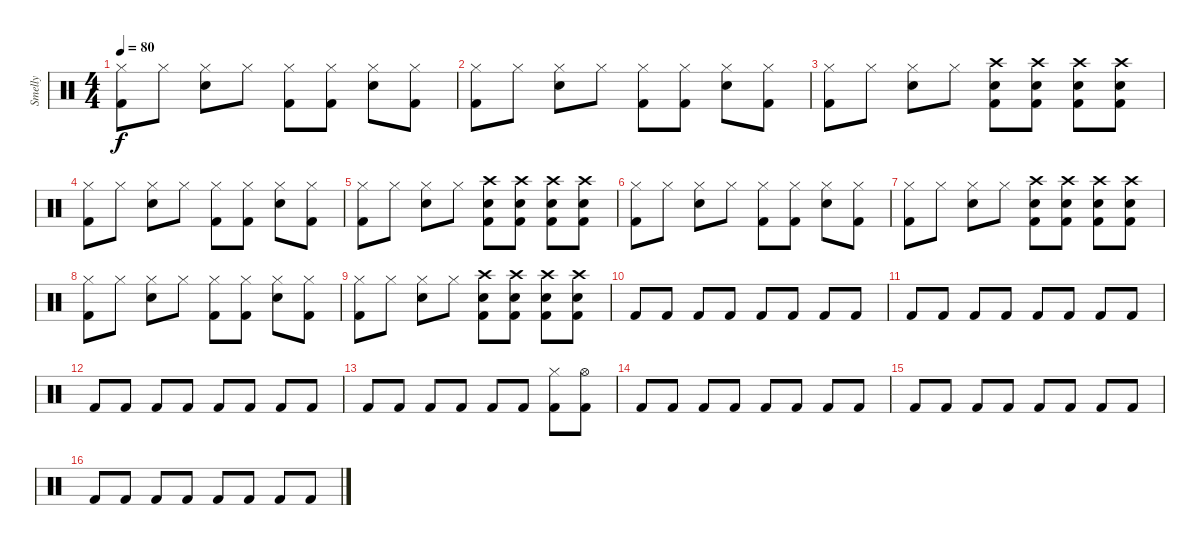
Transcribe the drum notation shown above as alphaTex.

\track ("Smelly" "Smelly") {instrument percussion}
\staff {score}
\articulation defaults
\ts (4 4)
\tempo 80
\clef neutral
\ks c
("Hi-Hat (closed)" "Kick (hit) 2").8{dy f} "Hi-Hat (closed)".8 ("Hi-Hat (closed)" "Electric Snare (hit)").8 "Hi-Hat (closed)".8 ("Hi-Hat (closed)" "Kick (hit) 2").8 ("Hi-Hat (closed)" "Kick (hit) 2").8 ("Hi-Hat (closed)" "Electric Snare (hit)").8 ("Hi-Hat (closed)" "Kick (hit) 2").8 |
("Hi-Hat (closed)" "Kick (hit) 2").8 "Hi-Hat (closed)".8 ("Hi-Hat (closed)" "Electric Snare (hit)").8 "Hi-Hat (closed)".8 ("Hi-Hat (closed)" "Kick (hit) 2").8 ("Hi-Hat (closed)" "Kick (hit) 2").8 ("Hi-Hat (closed)" "Electric Snare (hit)").8 ("Hi-Hat (closed)" "Kick (hit) 2").8 |
("Hi-Hat (closed)" "Kick (hit) 2").8 "Hi-Hat (closed)".8 ("Hi-Hat (closed)" "Electric Snare (hit)").8 "Hi-Hat (closed)".8 ("Crash high (hit)" "Electric Snare (hit)" "Kick (hit) 2").8 ("Crash high (hit)" "Electric Snare (hit)" "Kick (hit) 2").8 ("Crash high (hit)" "Electric Snare (hit)" "Kick (hit) 2").8 ("Crash high (hit)" "Electric Snare (hit)" "Kick (hit) 2").8 |
("Hi-Hat (closed)" "Kick (hit) 2").8 "Hi-Hat (closed)".8 ("Hi-Hat (closed)" "Electric Snare (hit)").8 "Hi-Hat (closed)".8 ("Hi-Hat (closed)" "Kick (hit) 2").8 ("Hi-Hat (closed)" "Kick (hit) 2").8 ("Hi-Hat (closed)" "Electric Snare (hit)").8 ("Hi-Hat (closed)" "Kick (hit) 2").8 |
("Hi-Hat (closed)" "Kick (hit) 2").8 "Hi-Hat (closed)".8 ("Hi-Hat (closed)" "Electric Snare (hit)").8 "Hi-Hat (closed)".8 ("Crash high (hit)" "Electric Snare (hit)" "Kick (hit) 2").8 ("Crash high (hit)" "Electric Snare (hit)" "Kick (hit) 2").8 ("Crash high (hit)" "Electric Snare (hit)" "Kick (hit) 2").8 ("Crash high (hit)" "Electric Snare (hit)" "Kick (hit) 2").8 |
("Hi-Hat (closed)" "Kick (hit) 2").8 "Hi-Hat (closed)".8 ("Hi-Hat (closed)" "Electric Snare (hit)").8 "Hi-Hat (closed)".8 ("Hi-Hat (closed)" "Kick (hit) 2").8 ("Hi-Hat (closed)" "Kick (hit) 2").8 ("Hi-Hat (closed)" "Electric Snare (hit)").8 ("Hi-Hat (closed)" "Kick (hit) 2").8 |
("Hi-Hat (closed)" "Kick (hit) 2").8 "Hi-Hat (closed)".8 ("Hi-Hat (closed)" "Electric Snare (hit)").8 "Hi-Hat (closed)".8 ("Crash high (hit)" "Electric Snare (hit)" "Kick (hit) 2").8 ("Crash high (hit)" "Electric Snare (hit)" "Kick (hit) 2").8 ("Crash high (hit)" "Electric Snare (hit)" "Kick (hit) 2").8 ("Crash high (hit)" "Electric Snare (hit)" "Kick (hit) 2").8 |
("Hi-Hat (closed)" "Kick (hit) 2").8 "Hi-Hat (closed)".8 ("Hi-Hat (closed)" "Electric Snare (hit)").8 "Hi-Hat (closed)".8 ("Hi-Hat (closed)" "Kick (hit) 2").8 ("Hi-Hat (closed)" "Kick (hit) 2").8 ("Hi-Hat (closed)" "Electric Snare (hit)").8 ("Hi-Hat (closed)" "Kick (hit) 2").8 |
("Hi-Hat (closed)" "Kick (hit) 2").8 "Hi-Hat (closed)".8 ("Hi-Hat (closed)" "Electric Snare (hit)").8 "Hi-Hat (closed)".8 ("Crash high (hit)" "Electric Snare (hit)" "Kick (hit) 2").8 ("Crash high (hit)" "Electric Snare (hit)" "Kick (hit) 2").8 ("Crash high (hit)" "Electric Snare (hit)" "Kick (hit) 2").8 ("Crash high (hit)" "Electric Snare (hit)" "Kick (hit) 2").8 |
"Kick (hit) 2".8 "Kick (hit) 2".8 "Kick (hit) 2".8 "Kick (hit) 2".8 "Kick (hit) 2".8 "Kick (hit) 2".8 "Kick (hit) 2".8 "Kick (hit) 2".8 |
"Kick (hit) 2".8 "Kick (hit) 2".8 "Kick (hit) 2".8 "Kick (hit) 2".8 "Kick (hit) 2".8 "Kick (hit) 2".8 "Kick (hit) 2".8 "Kick (hit) 2".8 |
"Kick (hit) 2".8 "Kick (hit) 2".8 "Kick (hit) 2".8 "Kick (hit) 2".8 "Kick (hit) 2".8 "Kick (hit) 2".8 "Kick (hit) 2".8 "Kick (hit) 2".8 |
"Kick (hit) 2".8 "Kick (hit) 2".8 "Kick (hit) 2".8 "Kick (hit) 2".8 "Kick (hit) 2".8 "Kick (hit) 2".8 ("Hi-Hat (closed)" "Kick (hit) 2").8 ("Hi-Hat (open)" "Kick (hit) 2").8 |
"Kick (hit) 2".8 "Kick (hit) 2".8 "Kick (hit) 2".8 "Kick (hit) 2".8 "Kick (hit) 2".8 "Kick (hit) 2".8 "Kick (hit) 2".8 "Kick (hit) 2".8 |
"Kick (hit) 2".8 "Kick (hit) 2".8 "Kick (hit) 2".8 "Kick (hit) 2".8 "Kick (hit) 2".8 "Kick (hit) 2".8 "Kick (hit) 2".8 "Kick (hit) 2".8 |
"Kick (hit) 2".8 "Kick (hit) 2".8 "Kick (hit) 2".8 "Kick (hit) 2".8 "Kick (hit) 2".8 "Kick (hit) 2".8 "Kick (hit) 2".8 "Kick (hit) 2".8
